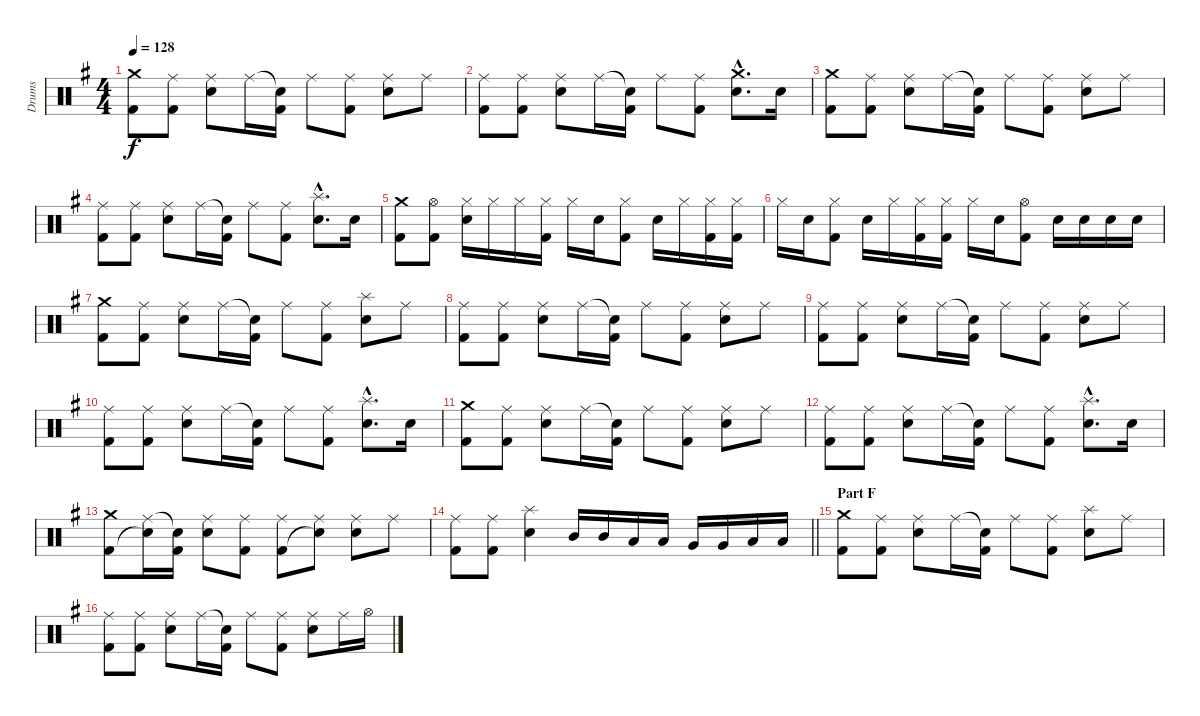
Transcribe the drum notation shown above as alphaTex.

\track ("Drums" "Drums") {instrument percussion}
\staff {score}
\articulation defaults
\ts (4 4)
\tempo 128
\clef neutral
\ks g
("Crash medium (hit)" "Kick (hit) 2").8{dy f} ("Ride (middle)" "Kick (hit) 2").8 ("Ride (middle)" "Electric Snare (hit)").8 "Ride (middle)".16 ("Snare (hit)"{t} "Kick (hit) 2").16 "Ride (middle)".8 ("Ride (middle)" "Kick (hit) 2").8 ("Ride (middle)" "Electric Snare (hit)").8 "Ride (middle)".8 |
("Ride (middle)" "Kick (hit) 2").8 ("Ride (middle)" "Kick (hit) 2").8 ("Ride (middle)" "Electric Snare (hit)").8 "Ride (middle)".16 ("Snare (hit)"{t} "Kick (hit) 2").16 "Ride (middle)".8 ("Ride (middle)" "Kick (hit) 2").8 ("Crash medium (hit)"{hac} "Electric Snare (hit)"{hac}).8{d} "Electric Snare (hit)".16 |
("Crash medium (hit)" "Kick (hit) 2").8 ("Ride (middle)" "Kick (hit) 2").8 ("Ride (middle)" "Electric Snare (hit)").8 "Ride (middle)".16 ("Snare (hit)"{t} "Kick (hit) 2").16 "Ride (middle)".8 ("Ride (middle)" "Kick (hit) 2").8 ("Ride (middle)" "Electric Snare (hit)").8 "Ride (middle)".8 |
("Ride (middle)" "Kick (hit) 2").8 ("Ride (middle)" "Kick (hit) 2").8 ("Ride (middle)" "Electric Snare (hit)").8 "Ride (middle)".16 ("Snare (hit)"{t} "Kick (hit) 2").16 "Ride (middle)".8 ("Ride (middle)" "Kick (hit) 2").8 ("Splash (hit)"{hac} "Electric Snare (hit)"{hac}).8{d} "Electric Snare (hit)".16 |
("Crash medium (hit)" "Kick (hit) 2").8 ("Hi-Hat (open)" "Kick (hit) 2").8 ("Hi-Hat (closed)" "Electric Snare (hit)").16 "Hi-Hat (closed)".16 "Hi-Hat (closed)".16 ("Hi-Hat (closed)" "Kick (hit) 2").16 "Hi-Hat (closed)".16 "Electric Snare (hit)".16 ("Hi-Hat (closed)" "Kick (hit) 2").8 "Electric Snare (hit)".16 "Hi-Hat (closed)".16 ("Hi-Hat (closed)" "Kick (hit) 2").16 ("Hi-Hat (closed)" "Kick (hit) 2").16 |
"Hi-Hat (closed)".16 "Electric Snare (hit)".16 ("Hi-Hat (closed)" "Kick (hit) 2").8 "Electric Snare (hit)".16 "Hi-Hat (closed)".16 ("Hi-Hat (closed)" "Kick (hit) 2").16 ("Hi-Hat (closed)" "Kick (hit) 2").16 "Hi-Hat (closed)".16 "Electric Snare (hit)".16 ("Hi-Hat (open)" "Kick (hit) 2").8 "Electric Snare (hit)".16 "Electric Snare (hit)".16 "Electric Snare (hit)".16 "Electric Snare (hit)".16 |
("Crash medium (hit)" "Kick (hit) 2").8 ("Ride (middle)" "Kick (hit) 2").8 ("Ride (middle)" "Electric Snare (hit)").8 "Ride (middle)".16 ("Snare (hit)"{t} "Kick (hit) 2").16 "Ride (middle)".8 ("Ride (middle)" "Kick (hit) 2").8 ("Splash (hit)" "Electric Snare (hit)").8 "Ride (middle)".8 |
("Ride (middle)" "Kick (hit) 2").8 ("Ride (middle)" "Kick (hit) 2").8 ("Ride (middle)" "Electric Snare (hit)").8 "Ride (middle)".16 ("Snare (hit)"{t} "Kick (hit) 2").16 "Ride (middle)".8 ("Ride (middle)" "Kick (hit) 2").8 ("Ride (middle)" "Electric Snare (hit)").8 "Ride (middle)".8 |
("Ride (middle)" "Kick (hit) 2").8 ("Ride (middle)" "Kick (hit) 2").8 ("Ride (middle)" "Electric Snare (hit)").8 "Ride (middle)".16 ("Snare (hit)"{t} "Kick (hit) 2").16 "Ride (middle)".8 ("Ride (middle)" "Kick (hit) 2").8 ("Ride (middle)" "Electric Snare (hit)").8 "Ride (middle)".8 |
("Ride (middle)" "Kick (hit) 2").8 ("Ride (middle)" "Kick (hit) 2").8 ("Ride (middle)" "Electric Snare (hit)").8 "Ride (middle)".16 ("Snare (hit)"{t} "Kick (hit) 2").16 "Ride (middle)".8 ("Ride (middle)" "Kick (hit) 2").8 ("Splash (hit)"{hac} "Electric Snare (hit)"{hac}).8{d} "Electric Snare (hit)".16 |
("Crash medium (hit)" "Kick (hit) 2").8 ("Ride (middle)" "Kick (hit) 2").8 ("Ride (middle)" "Electric Snare (hit)").8 "Ride (middle)".16 ("Snare (hit)"{t} "Kick (hit) 2").16 "Ride (middle)".8 ("Ride (middle)" "Kick (hit) 2").8 ("Ride (middle)" "Electric Snare (hit)").8 "Ride (middle)".8 |
("Ride (middle)" "Kick (hit) 2").8 ("Ride (middle)" "Kick (hit) 2").8 ("Ride (middle)" "Electric Snare (hit)").8 "Ride (middle)".16 ("Snare (hit)"{t} "Kick (hit) 2").16 "Ride (middle)".8 ("Ride (middle)" "Kick (hit) 2").8 ("Splash (hit)"{hac} "Electric Snare (hit)"{hac}).8{d} "Electric Snare (hit)".16 |
("Crash medium (hit)" "Kick (hit) 2").8 ("Ride (middle)" "Snare (hit)"{t}).16 ("Snare (hit)"{t} "Kick (hit) 2").16 ("Ride (middle)" "Electric Snare (hit)").8 ("Ride (middle)" "Kick (hit) 2").8 ("Ride (middle)" "Kick (hit) 2").8 ("Ride (middle)" "Snare (hit)"{t}).8 ("Ride (middle)" "Electric Snare (hit)").8 "Ride (middle)".8 |
\barLineRight lightlight
("Ride (middle)" "Kick (hit) 2").8 ("Ride (middle)" "Kick (hit) 2").8 ("Splash (hit)" "Electric Snare (hit)").4 "Mid Tom (hit)".16 "Mid Tom (hit)".16 "Low Tom (hit)".16 "Low Tom (hit)".16 "Very Low Tom (hit)".16 "Very Low Tom (hit)".16 "Low Floor Tom (hit)".16 "Low Floor Tom (hit)".16 |
\section ("" "Part F")
("Crash medium (hit)" "Kick (hit) 2").8 ("Ride (middle)" "Kick (hit) 2").8 ("Ride (middle)" "Electric Snare (hit)").8 "Ride (middle)".16 ("Snare (hit)"{t} "Kick (hit) 2").16 "Ride (middle)".8 ("Ride (middle)" "Kick (hit) 2").8 ("Splash (hit)" "Electric Snare (hit)").8 "Ride (middle)".8 |
("Ride (middle)" "Kick (hit) 2").8 ("Ride (middle)" "Kick (hit) 2").8 ("Ride (middle)" "Electric Snare (hit)").8 "Ride (middle)".16 ("Snare (hit)"{t} "Kick (hit) 2").16 "Ride (middle)".8 ("Ride (middle)" "Kick (hit) 2").8 ("Ride (middle)" "Electric Snare (hit)").8 "Ride (middle)".16 "Hi-Hat (open)".16
